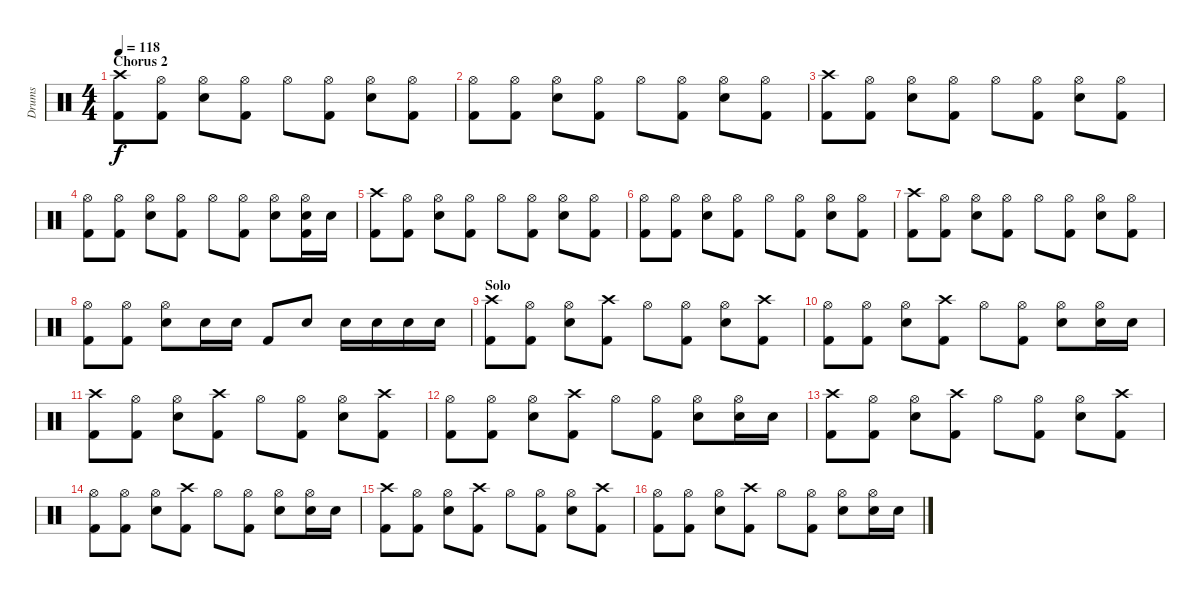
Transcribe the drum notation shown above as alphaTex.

\track ("Drums" "Drums") {instrument percussion}
\staff {score}
\articulation defaults
\ts (4 4)
\section ("" "Chorus 2")
\tempo 118
\clef neutral
\ks c
("Crash high (hit)" "Kick (hit) 2").8{dy f} ("Hi-Hat (open)" "Kick (hit) 2").8 ("Hi-Hat (open)" "Electric Snare (hit)").8 ("Hi-Hat (open)" "Kick (hit) 2").8 "Hi-Hat (open)".8 ("Hi-Hat (open)" "Kick (hit) 2").8 ("Hi-Hat (open)" "Electric Snare (hit)").8 ("Hi-Hat (open)" "Kick (hit) 2").8 |
("Hi-Hat (open)" "Kick (hit) 2").8 ("Hi-Hat (open)" "Kick (hit) 2").8 ("Hi-Hat (open)" "Electric Snare (hit)").8 ("Hi-Hat (open)" "Kick (hit) 2").8 "Hi-Hat (open)".8 ("Hi-Hat (open)" "Kick (hit) 2").8 ("Hi-Hat (open)" "Electric Snare (hit)").8 ("Hi-Hat (open)" "Kick (hit) 2").8 |
("Crash high (hit)" "Kick (hit) 2").8 ("Hi-Hat (open)" "Kick (hit) 2").8 ("Hi-Hat (open)" "Electric Snare (hit)").8 ("Hi-Hat (open)" "Kick (hit) 2").8 "Hi-Hat (open)".8 ("Hi-Hat (open)" "Kick (hit) 2").8 ("Hi-Hat (open)" "Electric Snare (hit)").8 ("Hi-Hat (open)" "Kick (hit) 2").8 |
("Hi-Hat (open)" "Kick (hit) 2").8 ("Hi-Hat (open)" "Kick (hit) 2").8 ("Hi-Hat (open)" "Electric Snare (hit)").8 ("Hi-Hat (open)" "Kick (hit) 2").8 "Hi-Hat (open)".8 ("Hi-Hat (open)" "Kick (hit) 2").8 ("Hi-Hat (open)" "Electric Snare (hit)").8 ("Hi-Hat (open)" "Electric Snare (hit)" "Kick (hit) 2").16 "Electric Snare (hit)".16 |
("Crash high (hit)" "Kick (hit) 2").8 ("Hi-Hat (open)" "Kick (hit) 2").8 ("Hi-Hat (open)" "Electric Snare (hit)").8 ("Hi-Hat (open)" "Kick (hit) 2").8 "Hi-Hat (open)".8 ("Hi-Hat (open)" "Kick (hit) 2").8 ("Hi-Hat (open)" "Electric Snare (hit)").8 ("Hi-Hat (open)" "Kick (hit) 2").8 |
("Hi-Hat (open)" "Kick (hit) 2").8 ("Hi-Hat (open)" "Kick (hit) 2").8 ("Hi-Hat (open)" "Electric Snare (hit)").8 ("Hi-Hat (open)" "Kick (hit) 2").8 "Hi-Hat (open)".8 ("Hi-Hat (open)" "Kick (hit) 2").8 ("Hi-Hat (open)" "Electric Snare (hit)").8 ("Hi-Hat (open)" "Kick (hit) 2").8 |
("Crash high (hit)" "Kick (hit) 2").8 ("Hi-Hat (open)" "Kick (hit) 2").8 ("Hi-Hat (open)" "Electric Snare (hit)").8 ("Hi-Hat (open)" "Kick (hit) 2").8 "Hi-Hat (open)".8 ("Hi-Hat (open)" "Kick (hit) 2").8 ("Hi-Hat (open)" "Electric Snare (hit)").8 ("Hi-Hat (open)" "Kick (hit) 2").8 |
("Hi-Hat (open)" "Kick (hit) 2").8 ("Hi-Hat (open)" "Kick (hit) 2").8 ("Hi-Hat (open)" "Snare (hit) 2").8 "Snare (hit) 2".16 "Snare (hit) 2".16 "Kick (hit) 2".8 "Snare (hit) 2".8 "Snare (hit) 2".16 "Snare (hit) 2".16 "Snare (hit) 2".16 "Snare (hit) 2".16 |
\section ("" "Solo")
("Crash high (hit)" "Kick (hit) 2").8 ("Hi-Hat (open)" "Kick (hit) 2").8 ("Hi-Hat (open)" "Electric Snare (hit)").8 ("Crash high (hit)" "Kick (hit) 2").8 "Hi-Hat (open)".8 ("Hi-Hat (open)" "Kick (hit) 2").8 ("Hi-Hat (open)" "Electric Snare (hit)").8 ("Crash high (hit)" "Kick (hit) 2").8 |
("Hi-Hat (open)" "Kick (hit) 2").8 ("Hi-Hat (open)" "Kick (hit) 2").8 ("Hi-Hat (open)" "Electric Snare (hit)").8 ("Crash high (hit)" "Kick (hit) 2").8 "Hi-Hat (open)".8 ("Hi-Hat (open)" "Kick (hit) 2").8 ("Hi-Hat (open)" "Electric Snare (hit)").8 ("Hi-Hat (open)" "Electric Snare (hit)").16 "Electric Snare (hit)".16 |
("Crash high (hit)" "Kick (hit) 2").8 ("Hi-Hat (open)" "Kick (hit) 2").8 ("Hi-Hat (open)" "Electric Snare (hit)").8 ("Crash high (hit)" "Kick (hit) 2").8 "Hi-Hat (open)".8 ("Hi-Hat (open)" "Kick (hit) 2").8 ("Hi-Hat (open)" "Electric Snare (hit)").8 ("Crash high (hit)" "Kick (hit) 2").8 |
("Hi-Hat (open)" "Kick (hit) 2").8 ("Hi-Hat (open)" "Kick (hit) 2").8 ("Hi-Hat (open)" "Electric Snare (hit)").8 ("Crash high (hit)" "Kick (hit) 2").8 "Hi-Hat (open)".8 ("Hi-Hat (open)" "Kick (hit) 2").8 ("Hi-Hat (open)" "Electric Snare (hit)").8 ("Hi-Hat (open)" "Electric Snare (hit)").16 "Electric Snare (hit)".16 |
("Crash high (hit)" "Kick (hit) 2").8 ("Hi-Hat (open)" "Kick (hit) 2").8 ("Hi-Hat (open)" "Electric Snare (hit)").8 ("Crash high (hit)" "Kick (hit) 2").8 "Hi-Hat (open)".8 ("Hi-Hat (open)" "Kick (hit) 2").8 ("Hi-Hat (open)" "Electric Snare (hit)").8 ("Crash high (hit)" "Kick (hit) 2").8 |
("Hi-Hat (open)" "Kick (hit) 2").8 ("Hi-Hat (open)" "Kick (hit) 2").8 ("Hi-Hat (open)" "Electric Snare (hit)").8 ("Crash high (hit)" "Kick (hit) 2").8 "Hi-Hat (open)".8 ("Hi-Hat (open)" "Kick (hit) 2").8 ("Hi-Hat (open)" "Electric Snare (hit)").8 ("Hi-Hat (open)" "Electric Snare (hit)").16 "Electric Snare (hit)".16 |
("Crash high (hit)" "Kick (hit) 2").8 ("Hi-Hat (open)" "Kick (hit) 2").8 ("Hi-Hat (open)" "Electric Snare (hit)").8 ("Crash high (hit)" "Kick (hit) 2").8 "Hi-Hat (open)".8 ("Hi-Hat (open)" "Kick (hit) 2").8 ("Hi-Hat (open)" "Electric Snare (hit)").8 ("Crash high (hit)" "Kick (hit) 2").8 |
("Hi-Hat (open)" "Kick (hit) 2").8 ("Hi-Hat (open)" "Kick (hit) 2").8 ("Hi-Hat (open)" "Electric Snare (hit)").8 ("Crash high (hit)" "Kick (hit) 2").8 "Hi-Hat (open)".8 ("Hi-Hat (open)" "Kick (hit) 2").8 ("Hi-Hat (open)" "Electric Snare (hit)").8 ("Hi-Hat (open)" "Electric Snare (hit)").16 "Electric Snare (hit)".16
